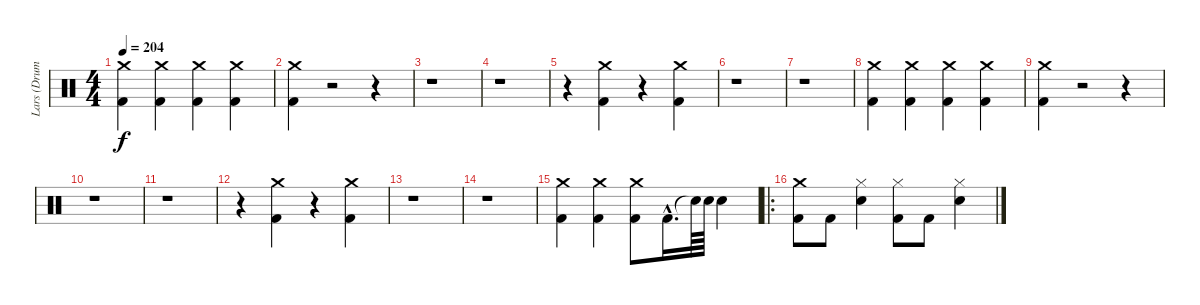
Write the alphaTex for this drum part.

\track ("Lars (Drums)" "Lars (Drum") {instrument percussion}
\staff {score}
\articulation defaults
\ts (4 4)
\tempo 204
\clef neutral
\ks c
("Kick (hit) 2" "Crash medium (hit)").4{dy f} ("Kick (hit) 2" "Crash medium (hit)").4 ("Kick (hit) 2" "Crash medium (hit)").4 ("Kick (hit) 2" "Crash medium (hit)").4 |
("Kick (hit) 2" "Crash medium (hit)").4 r.2 r.4 |
r.1 |
r.1 |
r.4 ("Kick (hit) 2" "Crash medium (hit)").4 r.4 ("Kick (hit) 2" "Crash medium (hit)").4 |
r.1 |
r.1 |
("Kick (hit) 2" "Crash medium (hit)").4 ("Kick (hit) 2" "Crash medium (hit)").4 ("Kick (hit) 2" "Crash medium (hit)").4 ("Kick (hit) 2" "Crash medium (hit)").4 |
("Kick (hit) 2" "Crash medium (hit)").4 r.2 r.4 |
r.1 |
r.1 |
r.4 ("Kick (hit) 2" "Crash medium (hit)").4 r.4 ("Kick (hit) 2" "Crash medium (hit)").4 |
r.1 |
r.1 |
("Kick (hit) 2" "Crash medium (hit)").4 ("Kick (hit) 2" "Crash medium (hit)").4 ("Kick (hit) 2" "Crash medium (hit)").8 "Kick (hit) 2"{hac}.16{d} "Snare (hit)"{t}.64 "Snare (hit) 2".64 "Snare (hit) 2".4 |
\ro
("Crash medium (hit)" "Kick (hit) 2").8 "Kick (hit) 2".8 ("Hi-Hat (closed)" "Snare (hit) 2").4 ("Hi-Hat (closed)" "Kick (hit) 2").8 "Kick (hit) 2".8 ("Snare (hit) 2" "Hi-Hat (closed)").4
